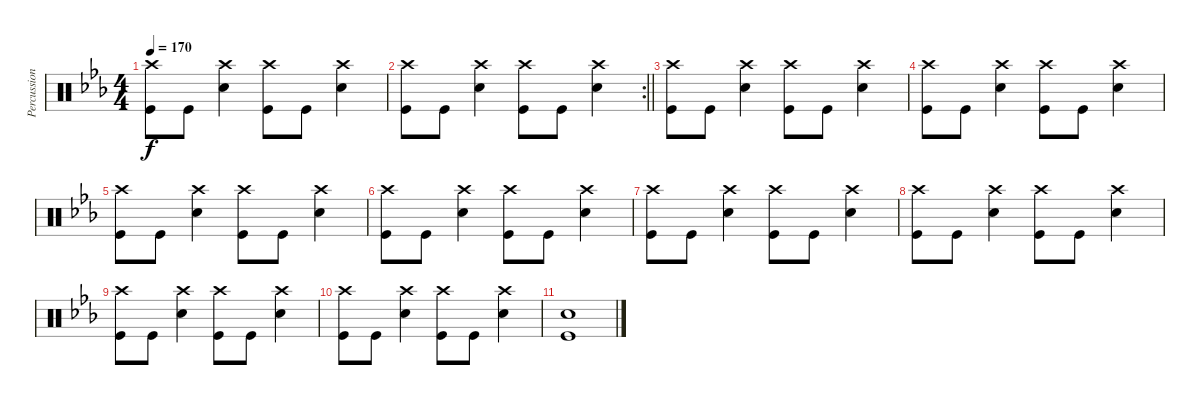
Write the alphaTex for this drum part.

\track ("Percussion" "Percussion") {instrument percussion}
\staff {score}
\articulation defaults
\ts (4 4)
\tempo 170
\clef neutral
\ks cminor
("Crash high (hit)" "Kick (hit)").8{dy f} "Kick (hit)".8 ("Crash high (hit)" "Snare (hit) 2").4 ("Crash high (hit)" "Kick (hit)").8 "Kick (hit)".8 ("Crash high (hit)" "Snare (hit) 2").4 |
\rc 2
\barLineRight lightlight
("Crash high (hit)" "Kick (hit)").8 "Kick (hit)".8 ("Crash high (hit)" "Snare (hit) 2").4 ("Crash high (hit)" "Kick (hit)").8 "Kick (hit)".8 ("Crash high (hit)" "Snare (hit) 2").4 |
("Crash high (hit)" "Kick (hit)").8 "Kick (hit)".8 ("Crash high (hit)" "Snare (hit) 2").4 ("Crash high (hit)" "Kick (hit)").8 "Kick (hit)".8 ("Crash high (hit)" "Snare (hit) 2").4 |
("Crash high (hit)" "Kick (hit)").8 "Kick (hit)".8 ("Crash high (hit)" "Snare (hit) 2").4 ("Crash high (hit)" "Kick (hit)").8 "Kick (hit)".8 ("Crash high (hit)" "Snare (hit) 2").4 |
("Crash high (hit)" "Kick (hit)").8 "Kick (hit)".8 ("Crash high (hit)" "Snare (hit) 2").4 ("Crash high (hit)" "Kick (hit)").8 "Kick (hit)".8 ("Crash high (hit)" "Snare (hit) 2").4 |
("Crash high (hit)" "Kick (hit)").8 "Kick (hit)".8 ("Crash high (hit)" "Snare (hit) 2").4 ("Crash high (hit)" "Kick (hit)").8 "Kick (hit)".8 ("Crash high (hit)" "Snare (hit) 2").4 |
("Crash high (hit)" "Kick (hit)").8 "Kick (hit)".8 ("Crash high (hit)" "Snare (hit) 2").4 ("Crash high (hit)" "Kick (hit)").8 "Kick (hit)".8 ("Crash high (hit)" "Snare (hit) 2").4 |
("Crash high (hit)" "Kick (hit)").8 "Kick (hit)".8 ("Crash high (hit)" "Snare (hit) 2").4 ("Crash high (hit)" "Kick (hit)").8 "Kick (hit)".8 ("Crash high (hit)" "Snare (hit) 2").4 |
("Crash high (hit)" "Kick (hit)").8 "Kick (hit)".8 ("Crash high (hit)" "Snare (hit) 2").4 ("Crash high (hit)" "Kick (hit)").8 "Kick (hit)".8 ("Crash high (hit)" "Snare (hit) 2").4 |
("Crash high (hit)" "Kick (hit)").8 "Kick (hit)".8 ("Crash high (hit)" "Snare (hit) 2").4 ("Crash high (hit)" "Kick (hit)").8 "Kick (hit)".8 ("Crash high (hit)" "Snare (hit) 2").4 |
("Snare (hit) 2" "Kick (hit)").1
